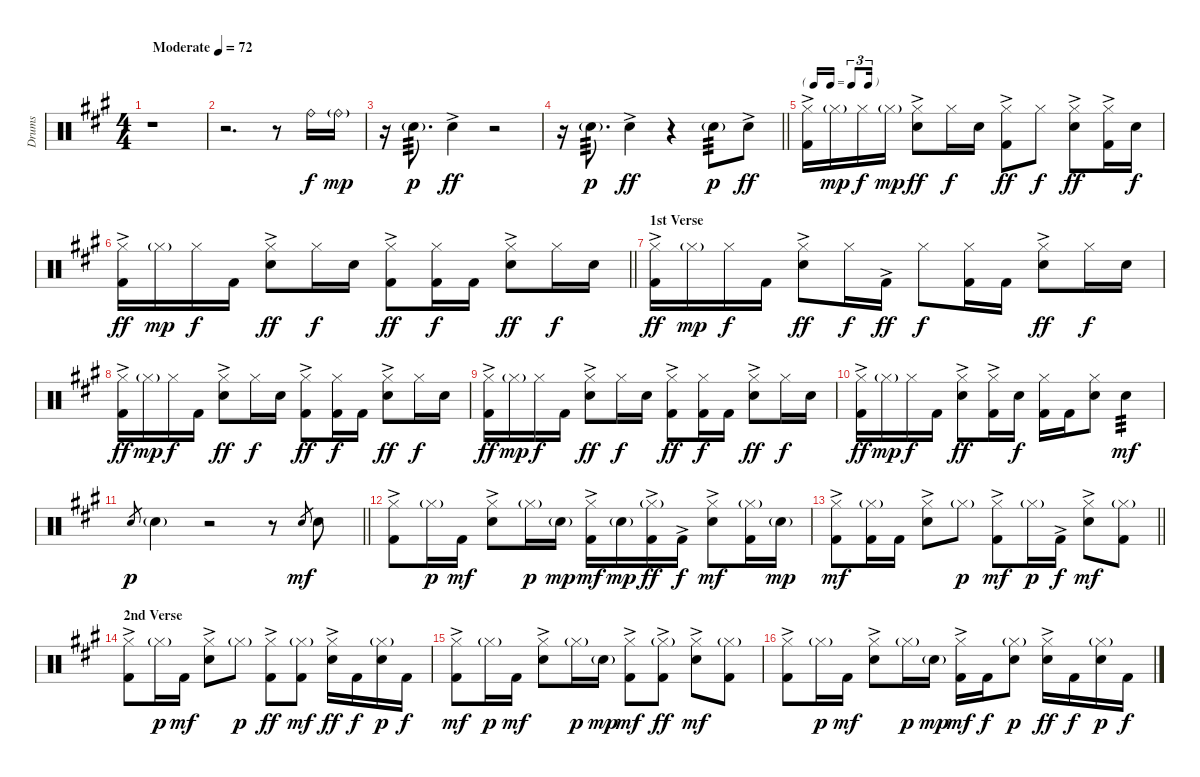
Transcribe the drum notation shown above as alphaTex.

\track ("Drums" "Drums") {instrument percussion}
\staff {score}
\articulation defaults
\ts (4 4)
\tempo (72 "Moderate")
\clef neutral
\ks a
r.1{dy f} |
r.2{d} r.8 "Ride (bell)".16 "Ride (bell)"{g}.16{dy mp} |
r.16 "Snare (hit) 2"{g}.8{d tp 3 dy p} "Snare (hit) 2"{ac}.4{dy ff} r.2 |
\barLineRight lightlight
r.16 "Snare (hit) 2"{g}.8{d tp 3 dy p} "Snare (hit) 2"{ac}.4{dy ff} r.4 "Snare (hit) 2"{g}.8{tp 3 dy p} "Snare (hit) 2"{ac}.8{dy ff} |
\tf triplet16th
("Hi-Hat (closed)" "Kick (hit) 2"{ac}).16 "Hi-Hat (closed)"{g}.16{dy mp} "Hi-Hat (closed)".16{dy f} "Hi-Hat (closed)"{g}.16{dy mp} ("Hi-Hat (closed)" "Snare (hit) 2"{ac}).8{dy ff} "Hi-Hat (closed)".16{dy f} "Snare (hit) 2".16 ("Hi-Hat (closed)" "Kick (hit) 2"{ac}).8{dy ff} "Hi-Hat (closed)".8{dy f} ("Hi-Hat (closed)" "Snare (hit) 2"{ac}).8{dy ff} ("Hi-Hat (closed)" "Kick (hit) 2"{ac}).16 "Snare (hit) 2".16{dy f} |
\barLineRight lightlight
("Hi-Hat (closed)" "Kick (hit) 2"{ac}).16{dy ff} "Hi-Hat (closed)"{g}.16{dy mp} "Hi-Hat (closed)".16{dy f} "Kick (hit) 2".16 ("Hi-Hat (closed)" "Snare (hit) 2"{ac}).8{dy ff} "Hi-Hat (closed)".16{dy f} "Snare (hit) 2".16 ("Hi-Hat (closed)" "Kick (hit) 2"{ac}).8{dy ff} ("Hi-Hat (closed)" "Kick (hit) 2").16{dy f} "Kick (hit) 2".16 ("Hi-Hat (closed)" "Snare (hit) 2"{ac}).8{dy ff} "Hi-Hat (closed)".16{dy f} "Snare (hit) 2".16 |
\section ("" "1st Verse")
("Hi-Hat (closed)" "Kick (hit) 2"{ac}).16{dy ff} "Hi-Hat (closed)"{g}.16{dy mp} "Hi-Hat (closed)".16{dy f} "Kick (hit) 2".16 ("Hi-Hat (closed)" "Snare (hit) 2"{ac}).8{dy ff} "Hi-Hat (closed)".16{dy f} "Kick (hit) 2"{ac}.16{dy ff} "Hi-Hat (closed)".8{dy f} ("Hi-Hat (closed)" "Kick (hit) 2").16 "Kick (hit) 2".16 ("Hi-Hat (closed)" "Snare (hit) 2"{ac}).8{dy ff} "Hi-Hat (closed)".16{dy f} "Snare (hit) 2".16 |
("Hi-Hat (closed)" "Kick (hit) 2"{ac}).16{dy ff} "Hi-Hat (closed)"{g}.16{dy mp} "Hi-Hat (closed)".16{dy f} "Kick (hit) 2".16 ("Hi-Hat (closed)" "Snare (hit) 2"{ac}).8{dy ff} "Hi-Hat (closed)".16{dy f} "Snare (hit) 2".16 ("Hi-Hat (closed)" "Kick (hit) 2"{ac}).8{dy ff} ("Hi-Hat (closed)" "Kick (hit) 2").16{dy f} "Kick (hit) 2".16 ("Hi-Hat (closed)" "Snare (hit) 2"{ac}).8{dy ff} "Hi-Hat (closed)".16{dy f} "Snare (hit) 2".16 |
("Hi-Hat (closed)" "Kick (hit) 2"{ac}).16{dy ff} "Hi-Hat (closed)"{g}.16{dy mp} "Hi-Hat (closed)".16{dy f} "Kick (hit) 2".16 ("Hi-Hat (closed)" "Snare (hit) 2"{ac}).8{dy ff} "Hi-Hat (closed)".16{dy f} "Snare (hit) 2".16 ("Hi-Hat (closed)" "Kick (hit) 2"{ac}).8{dy ff} ("Hi-Hat (closed)" "Kick (hit) 2").16{dy f} "Kick (hit) 2".16 ("Hi-Hat (closed)" "Snare (hit) 2"{ac}).8{dy ff} "Hi-Hat (closed)".16{dy f} "Snare (hit) 2".16 |
("Hi-Hat (closed)" "Kick (hit) 2"{ac}).16{dy ff} "Hi-Hat (closed)"{g}.16{dy mp} "Hi-Hat (closed)".16{dy f} "Kick (hit) 2".16 ("Hi-Hat (closed)" "Snare (hit) 2"{ac}).8{dy ff} ("Hi-Hat (closed)" "Kick (hit) 2"{ac}).16 "Snare (hit) 2".16{dy f} ("Hi-Hat (closed)" "Kick (hit) 2").16 "Kick (hit) 2".16 ("Hi-Hat (closed)" "Snare (hit) 2").8 "Snare (hit) 2".4{tp 3 dy mf} |
\barLineRight lightlight "Snare (hit) 2".8{gr dy p} "Snare (hit) 2"{g}.4
r.2 r.8 "Snare (hit) 2".8{gr dy mf} "Snare (hit) 2".8 |
("Hi-Hat (closed)" "Kick (hit) 2"{ac}).8 "Hi-Hat (closed)"{g}.16{dy p} "Kick (hit) 2".16{dy mf} ("Hi-Hat (closed)" "Snare (hit) 2"{ac}).8 "Hi-Hat (closed)"{g}.16{dy p} "Snare (hit) 2"{g}.16{dy mp} ("Hi-Hat (closed)" "Kick (hit) 2"{ac}).16{dy mf} "Snare (hit) 2"{g}.16{dy mp} ("Hi-Hat (closed)"{g} "Kick (hit) 2"{ac}).16{dy ff} "Kick (hit) 2"{ac}.16{dy f} ("Hi-Hat (closed)" "Snare (hit) 2"{ac}).8{dy mf} ("Hi-Hat (closed)"{g} "Kick (hit) 2").16 "Snare (hit) 2"{g}.16{dy mp} |
\barLineRight lightlight
("Hi-Hat (closed)" "Kick (hit) 2"{ac}).8{dy mf} ("Hi-Hat (closed)"{g} "Kick (hit) 2").16 "Kick (hit) 2".16 ("Hi-Hat (closed)" "Snare (hit) 2"{ac}).8 "Hi-Hat (closed)"{g}.8{dy p} ("Hi-Hat (closed)" "Kick (hit) 2"{ac}).8{dy mf} "Hi-Hat (closed)"{g}.16{dy p} "Kick (hit) 2"{ac}.16{dy f} ("Hi-Hat (closed)" "Snare (hit) 2"{ac}).8{dy mf} ("Hi-Hat (closed)"{g} "Kick (hit) 2").8 |
\section ("" "2nd Verse")
("Hi-Hat (closed)" "Kick (hit) 2"{ac}).8 "Hi-Hat (closed)"{g}.16{dy p} "Kick (hit) 2".16{dy mf} ("Hi-Hat (closed)" "Snare (hit) 2"{ac}).8 "Hi-Hat (closed)"{g}.8{dy p} ("Hi-Hat (closed)" "Kick (hit) 2"{ac}).8{dy ff} ("Hi-Hat (closed)"{g} "Kick (hit) 2").8{dy mf} ("Hi-Hat (closed)" "Snare (hit) 2"{ac}).16{dy ff} "Kick (hit) 2".16{dy f} ("Hi-Hat (closed)"{g} "Snare (hit) 2").16{dy p} "Kick (hit) 2".16{dy f} |
("Hi-Hat (closed)" "Kick (hit) 2"{ac}).8{dy mf} "Hi-Hat (closed)"{g}.16{dy p} "Kick (hit) 2".16{dy mf} ("Hi-Hat (closed)" "Snare (hit) 2"{ac}).8 "Hi-Hat (closed)"{g}.16{dy p} "Snare (hit) 2"{g}.16{dy mp} ("Hi-Hat (closed)" "Kick (hit) 2"{ac}).8{dy mf} ("Hi-Hat (closed)"{g} "Kick (hit) 2"{ac}).8{dy ff} ("Hi-Hat (closed)" "Snare (hit) 2"{ac}).8{dy mf} ("Hi-Hat (closed)"{g} "Kick (hit) 2").8 |
("Hi-Hat (closed)" "Kick (hit) 2"{ac}).8 "Hi-Hat (closed)"{g}.16{dy p} "Kick (hit) 2".16{dy mf} ("Hi-Hat (closed)" "Snare (hit) 2"{ac}).8 "Hi-Hat (closed)"{g}.16{dy p} "Snare (hit) 2"{g}.16{dy mp} ("Hi-Hat (closed)" "Kick (hit) 2"{ac}).16{dy mf} "Kick (hit) 2".16{dy f} ("Hi-Hat (closed)"{g} "Snare (hit) 2").8{dy p} ("Hi-Hat (closed)" "Snare (hit) 2"{ac}).16{dy ff} "Kick (hit) 2".16{dy f} ("Hi-Hat (closed)"{g} "Snare (hit) 2").16{dy p} "Kick (hit) 2".16{dy f}
